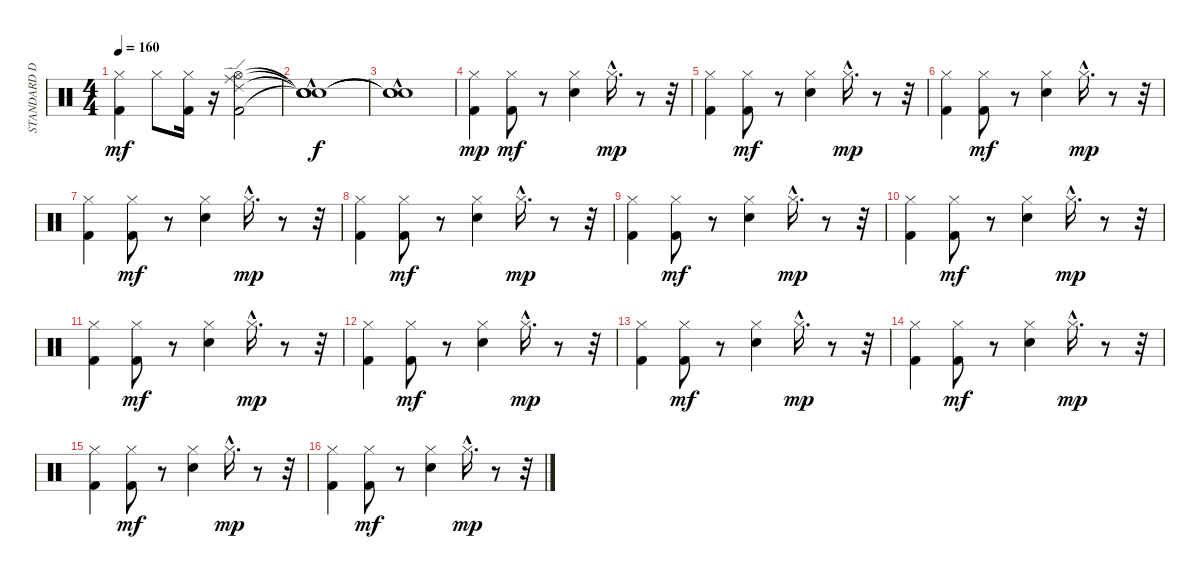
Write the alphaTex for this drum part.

\track ("STANDARD DRUMS" "STANDARD D") {instrument percussion}
\staff {score}
\articulation defaults
\ts (4 4)
\tempo 160
\clef neutral
\ks c
("Hi-Hat (closed)" "Kick (hit) 2").4{dy mf} "Hi-Hat (closed)".8 ("Hi-Hat (closed)" "Kick (hit) 2").16 r.16 ("Ride (middle)" "Ride (edge) 2" "Hi-Hat (open)" "Kick (hit) 2").2 |
("Snare (hit)"{t} "Snare (hit)"{t} "Snare (hit)"{hac t} "Snare (hit)"{t}).1{dy f} |
("Snare (hit)"{hac t} "Snare (hit)"{hac t} "Snare (hit)"{t}).1 |
("Hi-Hat (closed)" "Kick (hit) 2").4{dy mp} ("Hi-Hat (closed)" "Kick (hit) 2").8{dy mf} r.8 ("Hi-Hat (closed)" "Electric Snare (hit)").4 "Hi-Hat (closed)"{hac}.16{d dy mp} r.8 r.32 |
("Hi-Hat (closed)" "Kick (hit) 2").4 ("Hi-Hat (closed)" "Kick (hit) 2").8{dy mf} r.8 ("Hi-Hat (closed)" "Electric Snare (hit)").4 "Hi-Hat (closed)"{hac}.16{d dy mp} r.8 r.32 |
("Hi-Hat (closed)" "Kick (hit) 2").4 ("Hi-Hat (closed)" "Kick (hit) 2").8{dy mf} r.8 ("Hi-Hat (closed)" "Electric Snare (hit)").4 "Hi-Hat (closed)"{hac}.16{d dy mp} r.8 r.32 |
("Hi-Hat (closed)" "Kick (hit) 2").4 ("Hi-Hat (closed)" "Kick (hit) 2").8{dy mf} r.8 ("Hi-Hat (closed)" "Electric Snare (hit)").4 "Hi-Hat (closed)"{hac}.16{d dy mp} r.8 r.32 |
("Hi-Hat (closed)" "Kick (hit) 2").4 ("Hi-Hat (closed)" "Kick (hit) 2").8{dy mf} r.8 ("Hi-Hat (closed)" "Electric Snare (hit)").4 "Hi-Hat (closed)"{hac}.16{d dy mp} r.8 r.32 |
("Hi-Hat (closed)" "Kick (hit) 2").4 ("Hi-Hat (closed)" "Kick (hit) 2").8{dy mf} r.8 ("Hi-Hat (closed)" "Electric Snare (hit)").4 "Hi-Hat (closed)"{hac}.16{d dy mp} r.8 r.32 |
("Hi-Hat (closed)" "Kick (hit) 2").4 ("Hi-Hat (closed)" "Kick (hit) 2").8{dy mf} r.8 ("Hi-Hat (closed)" "Electric Snare (hit)").4 "Hi-Hat (closed)"{hac}.16{d dy mp} r.8 r.32 |
("Hi-Hat (closed)" "Kick (hit) 2").4 ("Hi-Hat (closed)" "Kick (hit) 2").8{dy mf} r.8 ("Hi-Hat (closed)" "Electric Snare (hit)").4 "Hi-Hat (closed)"{hac}.16{d dy mp} r.8 r.32 |
("Hi-Hat (closed)" "Kick (hit) 2").4 ("Hi-Hat (closed)" "Kick (hit) 2").8{dy mf} r.8 ("Hi-Hat (closed)" "Electric Snare (hit)").4 "Hi-Hat (closed)"{hac}.16{d dy mp} r.8 r.32 |
("Hi-Hat (closed)" "Kick (hit) 2").4 ("Hi-Hat (closed)" "Kick (hit) 2").8{dy mf} r.8 ("Hi-Hat (closed)" "Electric Snare (hit)").4 "Hi-Hat (closed)"{hac}.16{d dy mp} r.8 r.32 |
("Hi-Hat (closed)" "Kick (hit) 2").4 ("Hi-Hat (closed)" "Kick (hit) 2").8{dy mf} r.8 ("Hi-Hat (closed)" "Electric Snare (hit)").4 "Hi-Hat (closed)"{hac}.16{d dy mp} r.8 r.32 |
("Hi-Hat (closed)" "Kick (hit) 2").4 ("Hi-Hat (closed)" "Kick (hit) 2").8{dy mf} r.8 ("Hi-Hat (closed)" "Electric Snare (hit)").4 "Hi-Hat (closed)"{hac}.16{d dy mp} r.8 r.32 |
("Hi-Hat (closed)" "Kick (hit) 2").4 ("Hi-Hat (closed)" "Kick (hit) 2").8{dy mf} r.8 ("Hi-Hat (closed)" "Electric Snare (hit)").4 "Hi-Hat (closed)"{hac}.16{d dy mp} r.8 r.32
